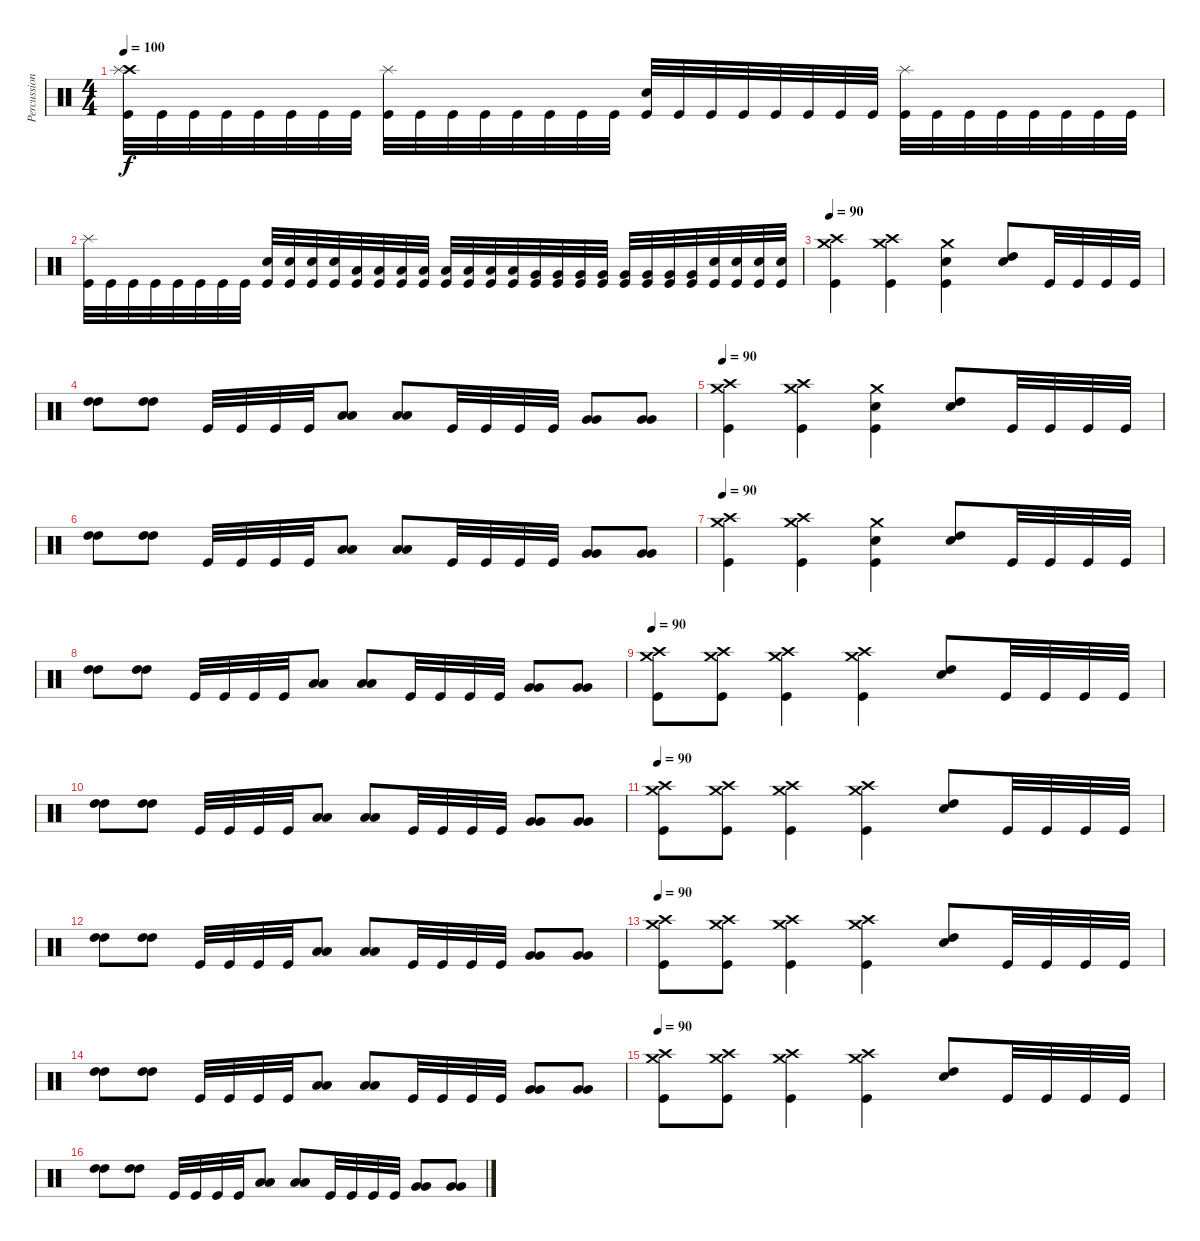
\track ("Percussion" "Percussion") {instrument percussion}
\staff {score}
\articulation defaults
\ts (4 4)
\tempo 100
\clef neutral
\ks c
("Crash high (hit)" "Splash (hit)" "Kick (hit)").32{dy f} "Kick (hit)".32 "Kick (hit)".32 "Kick (hit)".32 "Kick (hit)".32 "Kick (hit)".32 "Kick (hit)".32 "Kick (hit)".32 ("Splash (hit)" "Kick (hit)").32 "Kick (hit)".32 "Kick (hit)".32 "Kick (hit)".32 "Kick (hit)".32 "Kick (hit)".32 "Kick (hit)".32 "Kick (hit)".32 ("Electric Snare (hit)" "Kick (hit)").32 "Kick (hit)".32 "Kick (hit)".32 "Kick (hit)".32 "Kick (hit)".32 "Kick (hit)".32 "Kick (hit)".32 "Kick (hit)".32 ("Splash (hit)" "Kick (hit)").32 "Kick (hit)".32 "Kick (hit)".32 "Kick (hit)".32 "Kick (hit)".32 "Kick (hit)".32 "Kick (hit)".32 "Kick (hit)".32 |
("Splash (hit)" "Kick (hit)").32 "Kick (hit)".32 "Kick (hit)".32 "Kick (hit)".32 "Kick (hit)".32 "Kick (hit)".32 "Kick (hit)".32 "Kick (hit)".32 ("Electric Snare (hit)" "Kick (hit)").32 ("Electric Snare (hit)" "Kick (hit)").32 ("Electric Snare (hit)" "Kick (hit)").32 ("Electric Snare (hit)" "Kick (hit)").32 ("Low Tom (hit)" "Kick (hit)").32 ("Low Tom (hit)" "Kick (hit)").32 ("Low Tom (hit)" "Kick (hit)").32 ("Low Tom (hit)" "Kick (hit)").32 ("Low Tom (hit)" "Kick (hit)").32 ("Low Tom (hit)" "Kick (hit)").32 ("Low Tom (hit)" "Kick (hit)").32 ("Low Tom (hit)" "Kick (hit)").32 ("Very Low Tom (hit)" "Kick (hit)").32 ("Very Low Tom (hit)" "Kick (hit)").32 ("Very Low Tom (hit)" "Kick (hit)").32 ("Very Low Tom (hit)" "Kick (hit)").32 ("Very Low Tom (hit)" "Kick (hit)").32 ("Very Low Tom (hit)" "Kick (hit)").32 ("Very Low Tom (hit)" "Kick (hit)").32 ("Very Low Tom (hit)" "Kick (hit)").32 ("Electric Snare (hit)" "Kick (hit)").32 ("Electric Snare (hit)" "Kick (hit)").32 ("Electric Snare (hit)" "Kick (hit)").32 ("Electric Snare (hit)" "Kick (hit)").32 |
\tempo 90
("Crash medium (hit)" "Crash high (hit)" "Kick (hit)").4 ("Crash medium (hit)" "Crash high (hit)" "Kick (hit)").4 ("Crash medium (hit)" "Electric Snare (hit)" "Kick (hit)").4 ("High Tom (hit)" "Electric Snare (hit)").8 "Kick (hit)".32 "Kick (hit)".32 "Kick (hit)".32 "Kick (hit)".32 |
("High Tom (hit)" "High Tom (hit)").8 ("High Tom (hit)" "High Tom (hit)").8 "Kick (hit)".32 "Kick (hit)".32 "Kick (hit)".32 "Kick (hit)".32 ("Low Tom (hit)" "Low Tom (hit)").8 ("Low Tom (hit)" "Low Tom (hit)").8 "Kick (hit)".32 "Kick (hit)".32 "Kick (hit)".32 "Kick (hit)".32 ("Very Low Tom (hit)" "Very Low Tom (hit)").8 ("Very Low Tom (hit)" "Very Low Tom (hit)").8 |
\tempo 90
("Crash medium (hit)" "Crash high (hit)" "Kick (hit)").4 ("Crash medium (hit)" "Crash high (hit)" "Kick (hit)").4 ("Crash medium (hit)" "Electric Snare (hit)" "Kick (hit)").4 ("High Tom (hit)" "Electric Snare (hit)").8 "Kick (hit)".32 "Kick (hit)".32 "Kick (hit)".32 "Kick (hit)".32 |
("High Tom (hit)" "High Tom (hit)").8 ("High Tom (hit)" "High Tom (hit)").8 "Kick (hit)".32 "Kick (hit)".32 "Kick (hit)".32 "Kick (hit)".32 ("Low Tom (hit)" "Low Tom (hit)").8 ("Low Tom (hit)" "Low Tom (hit)").8 "Kick (hit)".32 "Kick (hit)".32 "Kick (hit)".32 "Kick (hit)".32 ("Very Low Tom (hit)" "Very Low Tom (hit)").8 ("Very Low Tom (hit)" "Very Low Tom (hit)").8 |
\tempo 90
("Crash medium (hit)" "Crash high (hit)" "Kick (hit)").4 ("Crash medium (hit)" "Crash high (hit)" "Kick (hit)").4 ("Crash medium (hit)" "Electric Snare (hit)" "Kick (hit)").4 ("High Tom (hit)" "Electric Snare (hit)").8 "Kick (hit)".32 "Kick (hit)".32 "Kick (hit)".32 "Kick (hit)".32 |
("High Tom (hit)" "High Tom (hit)").8 ("High Tom (hit)" "High Tom (hit)").8 "Kick (hit)".32 "Kick (hit)".32 "Kick (hit)".32 "Kick (hit)".32 ("Low Tom (hit)" "Low Tom (hit)").8 ("Low Tom (hit)" "Low Tom (hit)").8 "Kick (hit)".32 "Kick (hit)".32 "Kick (hit)".32 "Kick (hit)".32 ("Very Low Tom (hit)" "Very Low Tom (hit)").8 ("Very Low Tom (hit)" "Very Low Tom (hit)").8 |
\tempo 90
("Crash medium (hit)" "Crash high (hit)" "Kick (hit)").8 ("Crash medium (hit)" "Crash high (hit)" "Kick (hit)").8 ("Crash medium (hit)" "Crash high (hit)" "Kick (hit)").4 ("Crash medium (hit)" "Crash high (hit)" "Kick (hit)").4 ("High Tom (hit)" "Electric Snare (hit)").8 "Kick (hit)".32 "Kick (hit)".32 "Kick (hit)".32 "Kick (hit)".32 |
("High Tom (hit)" "High Tom (hit)").8 ("High Tom (hit)" "High Tom (hit)").8 "Kick (hit)".32 "Kick (hit)".32 "Kick (hit)".32 "Kick (hit)".32 ("Low Tom (hit)" "Low Tom (hit)").8 ("Low Tom (hit)" "Low Tom (hit)").8 "Kick (hit)".32 "Kick (hit)".32 "Kick (hit)".32 "Kick (hit)".32 ("Very Low Tom (hit)" "Very Low Tom (hit)").8 ("Very Low Tom (hit)" "Very Low Tom (hit)").8 |
\tempo 90
("Crash medium (hit)" "Crash high (hit)" "Kick (hit)").8 ("Crash medium (hit)" "Crash high (hit)" "Kick (hit)").8 ("Crash medium (hit)" "Crash high (hit)" "Kick (hit)").4 ("Crash medium (hit)" "Crash high (hit)" "Kick (hit)").4 ("High Tom (hit)" "Electric Snare (hit)").8 "Kick (hit)".32 "Kick (hit)".32 "Kick (hit)".32 "Kick (hit)".32 |
("High Tom (hit)" "High Tom (hit)").8 ("High Tom (hit)" "High Tom (hit)").8 "Kick (hit)".32 "Kick (hit)".32 "Kick (hit)".32 "Kick (hit)".32 ("Low Tom (hit)" "Low Tom (hit)").8 ("Low Tom (hit)" "Low Tom (hit)").8 "Kick (hit)".32 "Kick (hit)".32 "Kick (hit)".32 "Kick (hit)".32 ("Very Low Tom (hit)" "Very Low Tom (hit)").8 ("Very Low Tom (hit)" "Very Low Tom (hit)").8 |
\tempo 90
("Crash medium (hit)" "Crash high (hit)" "Kick (hit)").8 ("Crash medium (hit)" "Crash high (hit)" "Kick (hit)").8 ("Crash medium (hit)" "Crash high (hit)" "Kick (hit)").4 ("Crash medium (hit)" "Crash high (hit)" "Kick (hit)").4 ("High Tom (hit)" "Electric Snare (hit)").8 "Kick (hit)".32 "Kick (hit)".32 "Kick (hit)".32 "Kick (hit)".32 |
("High Tom (hit)" "High Tom (hit)").8 ("High Tom (hit)" "High Tom (hit)").8 "Kick (hit)".32 "Kick (hit)".32 "Kick (hit)".32 "Kick (hit)".32 ("Low Tom (hit)" "Low Tom (hit)").8 ("Low Tom (hit)" "Low Tom (hit)").8 "Kick (hit)".32 "Kick (hit)".32 "Kick (hit)".32 "Kick (hit)".32 ("Very Low Tom (hit)" "Very Low Tom (hit)").8 ("Very Low Tom (hit)" "Very Low Tom (hit)").8 |
\tempo 90
("Crash medium (hit)" "Crash high (hit)" "Kick (hit)").8 ("Crash medium (hit)" "Crash high (hit)" "Kick (hit)").8 ("Crash medium (hit)" "Crash high (hit)" "Kick (hit)").4 ("Crash medium (hit)" "Crash high (hit)" "Kick (hit)").4 ("High Tom (hit)" "Electric Snare (hit)").8 "Kick (hit)".32 "Kick (hit)".32 "Kick (hit)".32 "Kick (hit)".32 |
("High Tom (hit)" "High Tom (hit)").8 ("High Tom (hit)" "High Tom (hit)").8 "Kick (hit)".32 "Kick (hit)".32 "Kick (hit)".32 "Kick (hit)".32 ("Low Tom (hit)" "Low Tom (hit)").8 ("Low Tom (hit)" "Low Tom (hit)").8 "Kick (hit)".32 "Kick (hit)".32 "Kick (hit)".32 "Kick (hit)".32 ("Very Low Tom (hit)" "Very Low Tom (hit)").8 ("Very Low Tom (hit)" "Very Low Tom (hit)").8
